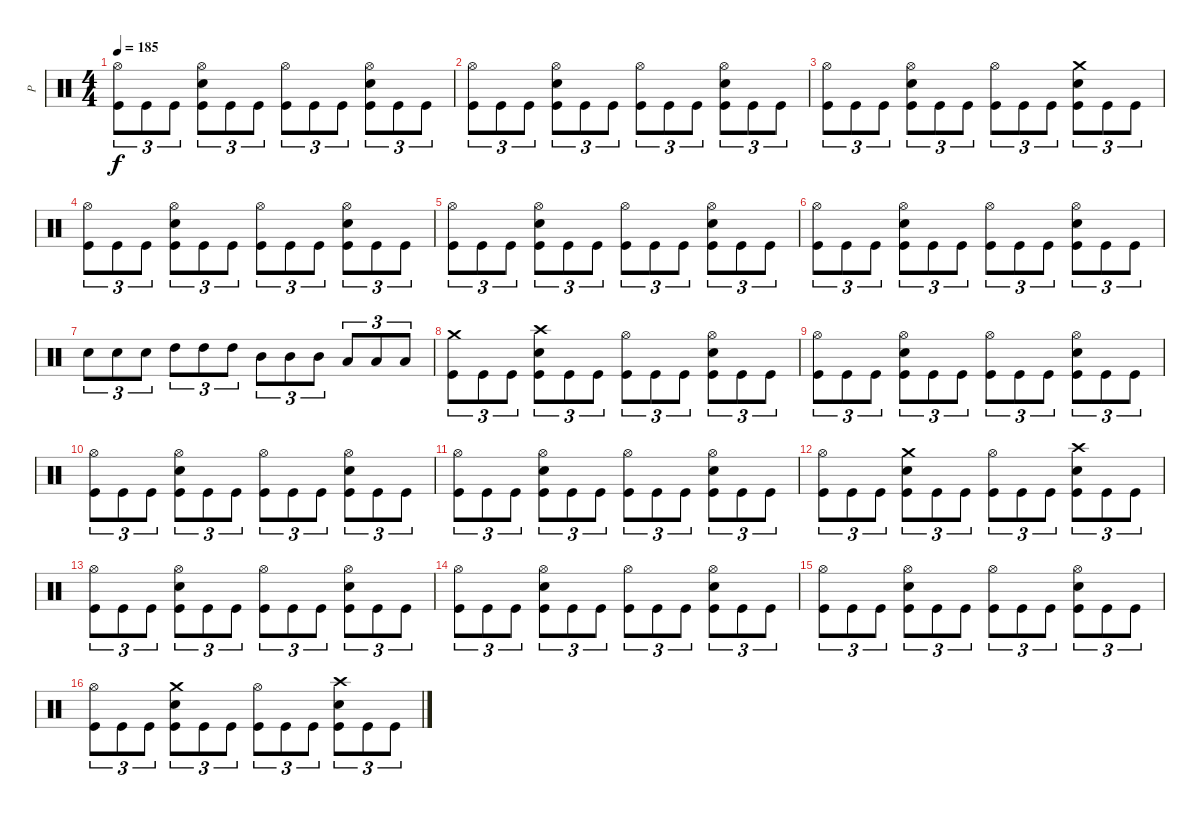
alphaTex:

\track ("P" "P") {instrument percussion}
\staff {score}
\articulation defaults
\ts (4 4)
\tempo 185
\clef neutral
\ks c
("Hi-Hat (open)" "Kick (hit)").8{tu (3 2) dy f} "Kick (hit)".8{tu (3 2)} "Kick (hit)".8{tu (3 2)} ("Hi-Hat (open)" "Electric Snare (hit)" "Kick (hit)").8{tu (3 2)} "Kick (hit)".8{tu (3 2)} "Kick (hit)".8{tu (3 2)} ("Hi-Hat (open)" "Kick (hit)").8{tu (3 2)} "Kick (hit)".8{tu (3 2)} "Kick (hit)".8{tu (3 2)} ("Hi-Hat (open)" "Electric Snare (hit)" "Kick (hit)").8{tu (3 2)} "Kick (hit)".8{tu (3 2)} "Kick (hit)".8{tu (3 2)} |
("Hi-Hat (open)" "Kick (hit)").8{tu (3 2)} "Kick (hit)".8{tu (3 2)} "Kick (hit)".8{tu (3 2)} ("Hi-Hat (open)" "Electric Snare (hit)" "Kick (hit)").8{tu (3 2)} "Kick (hit)".8{tu (3 2)} "Kick (hit)".8{tu (3 2)} ("Hi-Hat (open)" "Kick (hit)").8{tu (3 2)} "Kick (hit)".8{tu (3 2)} "Kick (hit)".8{tu (3 2)} ("Hi-Hat (open)" "Electric Snare (hit)" "Kick (hit)").8{tu (3 2)} "Kick (hit)".8{tu (3 2)} "Kick (hit)".8{tu (3 2)} |
("Hi-Hat (open)" "Kick (hit)").8{tu (3 2)} "Kick (hit)".8{tu (3 2)} "Kick (hit)".8{tu (3 2)} ("Hi-Hat (open)" "Electric Snare (hit)" "Kick (hit)").8{tu (3 2)} "Kick (hit)".8{tu (3 2)} "Kick (hit)".8{tu (3 2)} ("Hi-Hat (open)" "Kick (hit)").8{tu (3 2)} "Kick (hit)".8{tu (3 2)} "Kick (hit)".8{tu (3 2)} ("Crash medium (hit)" "Electric Snare (hit)" "Kick (hit)").8{tu (3 2)} "Kick (hit)".8{tu (3 2)} "Kick (hit)".8{tu (3 2)} |
("Hi-Hat (open)" "Kick (hit)").8{tu (3 2)} "Kick (hit)".8{tu (3 2)} "Kick (hit)".8{tu (3 2)} ("Hi-Hat (open)" "Electric Snare (hit)" "Kick (hit)").8{tu (3 2)} "Kick (hit)".8{tu (3 2)} "Kick (hit)".8{tu (3 2)} ("Hi-Hat (open)" "Kick (hit)").8{tu (3 2)} "Kick (hit)".8{tu (3 2)} "Kick (hit)".8{tu (3 2)} ("Hi-Hat (open)" "Electric Snare (hit)" "Kick (hit)").8{tu (3 2)} "Kick (hit)".8{tu (3 2)} "Kick (hit)".8{tu (3 2)} |
("Hi-Hat (open)" "Kick (hit)").8{tu (3 2)} "Kick (hit)".8{tu (3 2)} "Kick (hit)".8{tu (3 2)} ("Hi-Hat (open)" "Electric Snare (hit)" "Kick (hit)").8{tu (3 2)} "Kick (hit)".8{tu (3 2)} "Kick (hit)".8{tu (3 2)} ("Hi-Hat (open)" "Kick (hit)").8{tu (3 2)} "Kick (hit)".8{tu (3 2)} "Kick (hit)".8{tu (3 2)} ("Hi-Hat (open)" "Electric Snare (hit)" "Kick (hit)").8{tu (3 2)} "Kick (hit)".8{tu (3 2)} "Kick (hit)".8{tu (3 2)} |
("Hi-Hat (open)" "Kick (hit)").8{tu (3 2)} "Kick (hit)".8{tu (3 2)} "Kick (hit)".8{tu (3 2)} ("Hi-Hat (open)" "Electric Snare (hit)" "Kick (hit)").8{tu (3 2)} "Kick (hit)".8{tu (3 2)} "Kick (hit)".8{tu (3 2)} ("Hi-Hat (open)" "Kick (hit)").8{tu (3 2)} "Kick (hit)".8{tu (3 2)} "Kick (hit)".8{tu (3 2)} ("Hi-Hat (open)" "Electric Snare (hit)" "Kick (hit)").8{tu (3 2)} "Kick (hit)".8{tu (3 2)} "Kick (hit)".8{tu (3 2)} |
"Electric Snare (hit)".8{tu (3 2)} "Electric Snare (hit)".8{tu (3 2)} "Electric Snare (hit)".8{tu (3 2)} "High Tom (hit)".8{tu (3 2)} "High Tom (hit)".8{tu (3 2)} "High Tom (hit)".8{tu (3 2)} "Mid Tom (hit)".8{tu (3 2)} "Mid Tom (hit)".8{tu (3 2)} "Mid Tom (hit)".8{tu (3 2)} "Low Tom (hit)".8{tu (3 2)} "Low Tom (hit)".8{tu (3 2)} "Low Tom (hit)".8{tu (3 2)} |
("Crash medium (hit)" "Kick (hit)").8{tu (3 2)} "Kick (hit)".8{tu (3 2)} "Kick (hit)".8{tu (3 2)} ("Crash high (hit)" "Electric Snare (hit)" "Kick (hit)").8{tu (3 2)} "Kick (hit)".8{tu (3 2)} "Kick (hit)".8{tu (3 2)} ("Hi-Hat (open)" "Kick (hit)").8{tu (3 2)} "Kick (hit)".8{tu (3 2)} "Kick (hit)".8{tu (3 2)} ("Hi-Hat (open)" "Electric Snare (hit)" "Kick (hit)").8{tu (3 2)} "Kick (hit)".8{tu (3 2)} "Kick (hit)".8{tu (3 2)} |
("Hi-Hat (open)" "Kick (hit)").8{tu (3 2)} "Kick (hit)".8{tu (3 2)} "Kick (hit)".8{tu (3 2)} ("Hi-Hat (open)" "Electric Snare (hit)" "Kick (hit)").8{tu (3 2)} "Kick (hit)".8{tu (3 2)} "Kick (hit)".8{tu (3 2)} ("Hi-Hat (open)" "Kick (hit)").8{tu (3 2)} "Kick (hit)".8{tu (3 2)} "Kick (hit)".8{tu (3 2)} ("Hi-Hat (open)" "Electric Snare (hit)" "Kick (hit)").8{tu (3 2)} "Kick (hit)".8{tu (3 2)} "Kick (hit)".8{tu (3 2)} |
("Hi-Hat (open)" "Kick (hit)").8{tu (3 2)} "Kick (hit)".8{tu (3 2)} "Kick (hit)".8{tu (3 2)} ("Hi-Hat (open)" "Electric Snare (hit)" "Kick (hit)").8{tu (3 2)} "Kick (hit)".8{tu (3 2)} "Kick (hit)".8{tu (3 2)} ("Hi-Hat (open)" "Kick (hit)").8{tu (3 2)} "Kick (hit)".8{tu (3 2)} "Kick (hit)".8{tu (3 2)} ("Hi-Hat (open)" "Electric Snare (hit)" "Kick (hit)").8{tu (3 2)} "Kick (hit)".8{tu (3 2)} "Kick (hit)".8{tu (3 2)} |
("Hi-Hat (open)" "Kick (hit)").8{tu (3 2)} "Kick (hit)".8{tu (3 2)} "Kick (hit)".8{tu (3 2)} ("Hi-Hat (open)" "Electric Snare (hit)" "Kick (hit)").8{tu (3 2)} "Kick (hit)".8{tu (3 2)} "Kick (hit)".8{tu (3 2)} ("Hi-Hat (open)" "Kick (hit)").8{tu (3 2)} "Kick (hit)".8{tu (3 2)} "Kick (hit)".8{tu (3 2)} ("Hi-Hat (open)" "Electric Snare (hit)" "Kick (hit)").8{tu (3 2)} "Kick (hit)".8{tu (3 2)} "Kick (hit)".8{tu (3 2)} |
("Hi-Hat (open)" "Kick (hit)").8{tu (3 2)} "Kick (hit)".8{tu (3 2)} "Kick (hit)".8{tu (3 2)} ("Crash medium (hit)" "Electric Snare (hit)" "Kick (hit)").8{tu (3 2)} "Kick (hit)".8{tu (3 2)} "Kick (hit)".8{tu (3 2)} ("Hi-Hat (open)" "Kick (hit)").8{tu (3 2)} "Kick (hit)".8{tu (3 2)} "Kick (hit)".8{tu (3 2)} ("Crash high (hit)" "Electric Snare (hit)" "Kick (hit)").8{tu (3 2)} "Kick (hit)".8{tu (3 2)} "Kick (hit)".8{tu (3 2)} |
("Hi-Hat (open)" "Kick (hit)").8{tu (3 2)} "Kick (hit)".8{tu (3 2)} "Kick (hit)".8{tu (3 2)} ("Hi-Hat (open)" "Electric Snare (hit)" "Kick (hit)").8{tu (3 2)} "Kick (hit)".8{tu (3 2)} "Kick (hit)".8{tu (3 2)} ("Hi-Hat (open)" "Kick (hit)").8{tu (3 2)} "Kick (hit)".8{tu (3 2)} "Kick (hit)".8{tu (3 2)} ("Hi-Hat (open)" "Electric Snare (hit)" "Kick (hit)").8{tu (3 2)} "Kick (hit)".8{tu (3 2)} "Kick (hit)".8{tu (3 2)} |
("Hi-Hat (open)" "Kick (hit)").8{tu (3 2)} "Kick (hit)".8{tu (3 2)} "Kick (hit)".8{tu (3 2)} ("Hi-Hat (open)" "Electric Snare (hit)" "Kick (hit)").8{tu (3 2)} "Kick (hit)".8{tu (3 2)} "Kick (hit)".8{tu (3 2)} ("Hi-Hat (open)" "Kick (hit)").8{tu (3 2)} "Kick (hit)".8{tu (3 2)} "Kick (hit)".8{tu (3 2)} ("Hi-Hat (open)" "Electric Snare (hit)" "Kick (hit)").8{tu (3 2)} "Kick (hit)".8{tu (3 2)} "Kick (hit)".8{tu (3 2)} |
("Hi-Hat (open)" "Kick (hit)").8{tu (3 2)} "Kick (hit)".8{tu (3 2)} "Kick (hit)".8{tu (3 2)} ("Hi-Hat (open)" "Electric Snare (hit)" "Kick (hit)").8{tu (3 2)} "Kick (hit)".8{tu (3 2)} "Kick (hit)".8{tu (3 2)} ("Hi-Hat (open)" "Kick (hit)").8{tu (3 2)} "Kick (hit)".8{tu (3 2)} "Kick (hit)".8{tu (3 2)} ("Hi-Hat (open)" "Electric Snare (hit)" "Kick (hit)").8{tu (3 2)} "Kick (hit)".8{tu (3 2)} "Kick (hit)".8{tu (3 2)} |
("Hi-Hat (open)" "Kick (hit)").8{tu (3 2)} "Kick (hit)".8{tu (3 2)} "Kick (hit)".8{tu (3 2)} ("Crash medium (hit)" "Electric Snare (hit)" "Kick (hit)").8{tu (3 2)} "Kick (hit)".8{tu (3 2)} "Kick (hit)".8{tu (3 2)} ("Hi-Hat (open)" "Kick (hit)").8{tu (3 2)} "Kick (hit)".8{tu (3 2)} "Kick (hit)".8{tu (3 2)} ("Crash high (hit)" "Electric Snare (hit)" "Kick (hit)").8{tu (3 2)} "Kick (hit)".8{tu (3 2)} "Kick (hit)".8{tu (3 2)}
